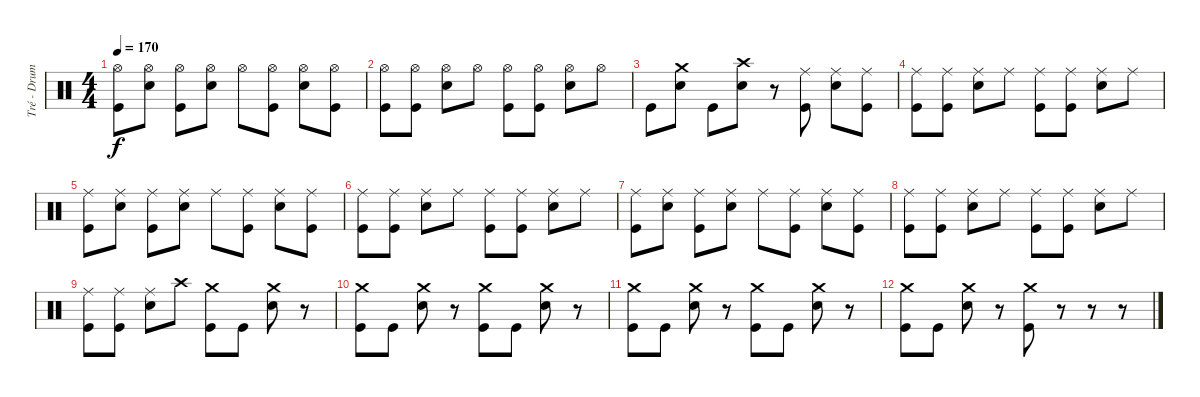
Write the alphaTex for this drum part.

\track ("Tré - Drums" "Tré - Drum") {instrument percussion}
\staff {score}
\articulation defaults
\ts (4 4)
\tempo 170
\clef neutral
\ks c
("Hi-Hat (open)" "Kick (hit)").8{dy f} ("Hi-Hat (open)" "Electric Snare (hit)").8 ("Hi-Hat (open)" "Kick (hit)").8 ("Hi-Hat (open)" "Electric Snare (hit)").8 "Hi-Hat (open)".8 ("Hi-Hat (open)" "Kick (hit)").8 ("Hi-Hat (open)" "Electric Snare (hit)").8 ("Hi-Hat (open)" "Kick (hit)").8 |
("Hi-Hat (open)" "Kick (hit)").8 ("Hi-Hat (open)" "Kick (hit)").8 ("Hi-Hat (open)" "Electric Snare (hit)").8 "Hi-Hat (open)".8 ("Hi-Hat (open)" "Kick (hit)").8 ("Hi-Hat (open)" "Kick (hit)").8 ("Hi-Hat (open)" "Electric Snare (hit)").8 "Hi-Hat (open)".8 |
"Kick (hit)".8 ("Crash medium (hit)" "Electric Snare (hit)").8 "Kick (hit)".8 ("Crash high (hit)" "Electric Snare (hit)").8 r.8 ("Ride (middle)" "Kick (hit)").8 ("Ride (middle)" "Electric Snare (hit)").8 ("Ride (middle)" "Kick (hit)").8 |
("Ride (middle)" "Kick (hit)").8 ("Ride (middle)" "Kick (hit)").8 ("Ride (middle)" "Electric Snare (hit)").8 "Ride (middle)".8 ("Ride (middle)" "Kick (hit)").8 ("Ride (middle)" "Kick (hit)").8 ("Ride (middle)" "Electric Snare (hit)").8 "Ride (middle)".8 |
("Ride (middle)" "Kick (hit)").8 ("Ride (middle)" "Electric Snare (hit)").8 ("Ride (middle)" "Kick (hit)").8 ("Ride (middle)" "Electric Snare (hit)").8 "Ride (middle)".8 ("Ride (middle)" "Kick (hit)").8 ("Ride (middle)" "Electric Snare (hit)").8 ("Ride (middle)" "Kick (hit)").8 |
("Ride (middle)" "Kick (hit)").8 ("Ride (middle)" "Kick (hit)").8 ("Ride (middle)" "Electric Snare (hit)").8 "Ride (middle)".8 ("Ride (middle)" "Kick (hit)").8 ("Ride (middle)" "Kick (hit)").8 ("Ride (middle)" "Electric Snare (hit)").8 "Ride (middle)".8 |
("Ride (middle)" "Kick (hit)").8 ("Ride (middle)" "Electric Snare (hit)").8 ("Ride (middle)" "Kick (hit)").8 ("Ride (middle)" "Electric Snare (hit)").8 "Ride (middle)".8 ("Ride (middle)" "Kick (hit)").8 ("Ride (middle)" "Electric Snare (hit)").8 ("Ride (middle)" "Kick (hit)").8 |
("Ride (middle)" "Kick (hit)").8 ("Ride (middle)" "Kick (hit)").8 ("Ride (middle)" "Electric Snare (hit)").8 "Ride (middle)".8 ("Ride (middle)" "Kick (hit)").8 ("Ride (middle)" "Kick (hit)").8 ("Ride (middle)" "Electric Snare (hit)").8 "Ride (middle)".8 |
("Ride (middle)" "Kick (hit)").8 ("Ride (middle)" "Kick (hit)").8 ("Ride (middle)" "Electric Snare (hit)").8 "Crash high (hit)".8 ("Crash medium (hit)" "Kick (hit)").8 "Kick (hit)".8 ("Crash medium (hit)" "Electric Snare (hit)").8 r.8 |
("Crash medium (hit)" "Kick (hit)").8 "Kick (hit)".8 ("Crash medium (hit)" "Electric Snare (hit)").8 r.8 ("Crash medium (hit)" "Kick (hit)").8 "Kick (hit)".8 ("Crash medium (hit)" "Electric Snare (hit)").8 r.8 |
("Crash medium (hit)" "Kick (hit)").8 "Kick (hit)".8 ("Crash medium (hit)" "Electric Snare (hit)").8 r.8 ("Crash medium (hit)" "Kick (hit)").8 "Kick (hit)".8 ("Crash medium (hit)" "Electric Snare (hit)").8 r.8 |
("Crash medium (hit)" "Kick (hit)").8 "Kick (hit)".8 ("Crash medium (hit)" "Electric Snare (hit)").8 r.8 ("Crash medium (hit)" "Kick (hit)").8 r.8 r.8 r.8
